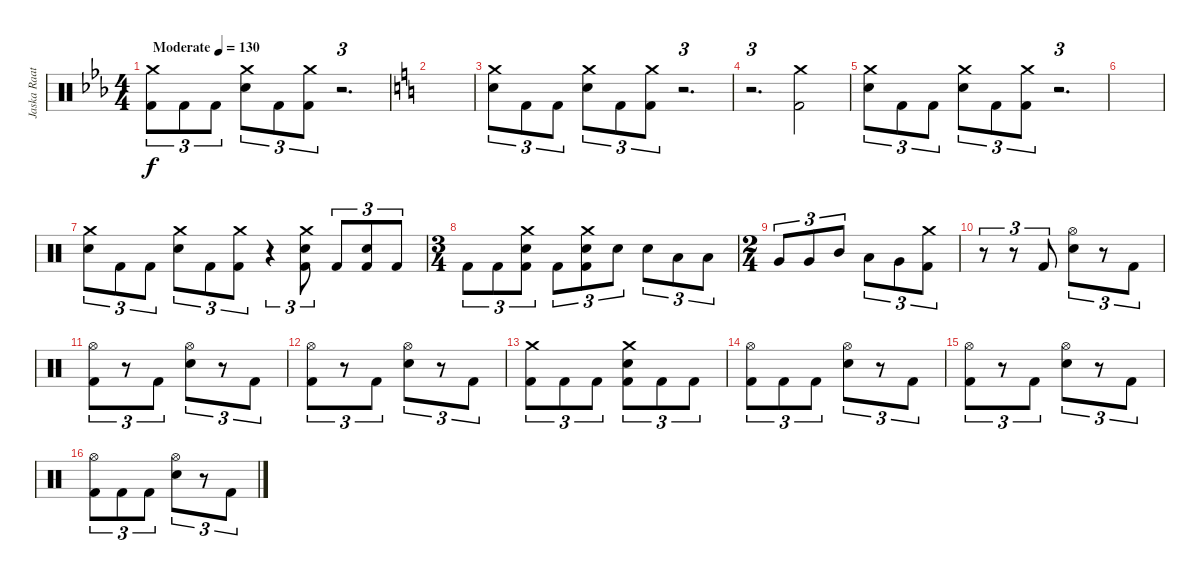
\track ("Jaska Raatikainen Drum Part" "Jaska Raat") {instrument percussion}
\staff {score}
\articulation defaults
\ts (4 4)
\tempo (130 "Moderate")
\clef neutral
\ks eb
("Crash medium (hit)" "Kick (hit) 2").8{tu (3 2) dy f} "Kick (hit) 2".8{tu (3 2)} "Kick (hit) 2".8{tu (3 2)} ("Crash medium (hit)" "Electric Snare (hit)").8{tu (3 2)} "Kick (hit) 2".8{tu (3 2)} ("Crash medium (hit)" "Kick (hit) 2").8{tu (3 2)} r.2{d tu (3 2)} |
\ks c
|
("Crash medium (hit)" "Electric Snare (hit)").8{tu (3 2)} "Kick (hit) 2".8{tu (3 2)} "Kick (hit) 2".8{tu (3 2)} ("Crash medium (hit)" "Electric Snare (hit)").8{tu (3 2)} "Kick (hit) 2".8{tu (3 2)} ("Crash medium (hit)" "Kick (hit) 2").8{tu (3 2)} r.2{d tu (3 2)} |
r.2{d tu (3 2)} ("Crash medium (hit)" "Kick (hit) 2").2 |
("Crash medium (hit)" "Electric Snare (hit)").8{tu (3 2)} "Kick (hit) 2".8{tu (3 2)} "Kick (hit) 2".8{tu (3 2)} ("Crash medium (hit)" "Electric Snare (hit)").8{tu (3 2)} "Kick (hit) 2".8{tu (3 2)} ("Crash medium (hit)" "Kick (hit) 2").8{tu (3 2)} r.2{d tu (3 2)} |
|
("Crash medium (hit)" "Electric Snare (hit)").8{tu (3 2)} "Kick (hit) 2".8{tu (3 2)} "Kick (hit) 2".8{tu (3 2)} ("Crash medium (hit)" "Electric Snare (hit)").8{tu (3 2)} "Kick (hit) 2".8{tu (3 2)} ("Crash medium (hit)" "Kick (hit) 2").8{tu (3 2)} r.4{tu (3 2)} ("Crash medium (hit)" "Electric Snare (hit)" "Kick (hit) 2").8{tu (3 2)} "Kick (hit) 2".8{tu (3 2)} ("Electric Snare (hit)" "Kick (hit) 2").8{tu (3 2)} "Kick (hit) 2".8{tu (3 2)} |
\ts (3 4)
"Kick (hit) 2".8{tu (3 2)} "Kick (hit) 2".8{tu (3 2)} ("Crash medium (hit)" "Electric Snare (hit)" "Kick (hit) 2").8{tu (3 2)} "Kick (hit) 2".8{tu (3 2)} ("Crash medium (hit)" "Electric Snare (hit)" "Kick (hit) 2").8{tu (3 2)} "Electric Snare (hit)".8{tu (3 2)} "Electric Snare (hit)".8{tu (3 2)} "Low Tom (hit)".8{tu (3 2)} "Low Tom (hit)".8{tu (3 2)} |
\ts (2 4)
"Very Low Tom (hit)".8{tu (3 2)} "Very Low Tom (hit)".8{tu (3 2)} "Mid Tom (hit)".8{tu (3 2)} "Low Tom (hit)".8{tu (3 2)} "Very Low Tom (hit)".8{tu (3 2)} ("Crash medium (hit)" "Kick (hit) 2").8{tu (3 2)} |
r.8{tu (3 2)} r.8{tu (3 2)} "Kick (hit) 2".8{tu (3 2)} ("Hi-Hat (open)" "Electric Snare (hit)").8{tu (3 2)} r.8{tu (3 2)} "Kick (hit) 2".8{tu (3 2)} |
("Hi-Hat (open)" "Kick (hit) 2").8{tu (3 2)} r.8{tu (3 2)} "Kick (hit) 2".8{tu (3 2)} ("Hi-Hat (open)" "Electric Snare (hit)").8{tu (3 2)} r.8{tu (3 2)} "Kick (hit) 2".8{tu (3 2)} |
("Hi-Hat (open)" "Kick (hit) 2").8{tu (3 2)} r.8{tu (3 2)} "Kick (hit) 2".8{tu (3 2)} ("Hi-Hat (open)" "Electric Snare (hit)").8{tu (3 2)} r.8{tu (3 2)} "Kick (hit) 2".8{tu (3 2)} |
("Crash medium (hit)" "Kick (hit) 2").8{tu (3 2)} "Kick (hit) 2".8{tu (3 2)} "Kick (hit) 2".8{tu (3 2)} ("Crash medium (hit)" "Electric Snare (hit)" "Kick (hit) 2").8{tu (3 2)} "Kick (hit) 2".8{tu (3 2)} "Kick (hit) 2".8{tu (3 2)} |
("Hi-Hat (open)" "Kick (hit) 2").8{tu (3 2)} "Kick (hit) 2".8{tu (3 2)} "Kick (hit) 2".8{tu (3 2)} ("Hi-Hat (open)" "Electric Snare (hit)").8{tu (3 2)} r.8{tu (3 2)} "Kick (hit) 2".8{tu (3 2)} |
("Hi-Hat (open)" "Kick (hit) 2").8{tu (3 2)} r.8{tu (3 2)} "Kick (hit) 2".8{tu (3 2)} ("Hi-Hat (open)" "Electric Snare (hit)").8{tu (3 2)} r.8{tu (3 2)} "Kick (hit) 2".8{tu (3 2)} |
("Hi-Hat (open)" "Kick (hit) 2").8{tu (3 2)} "Kick (hit) 2".8{tu (3 2)} "Kick (hit) 2".8{tu (3 2)} ("Hi-Hat (open)" "Electric Snare (hit)").8{tu (3 2)} r.8{tu (3 2)} "Kick (hit) 2".8{tu (3 2)}
